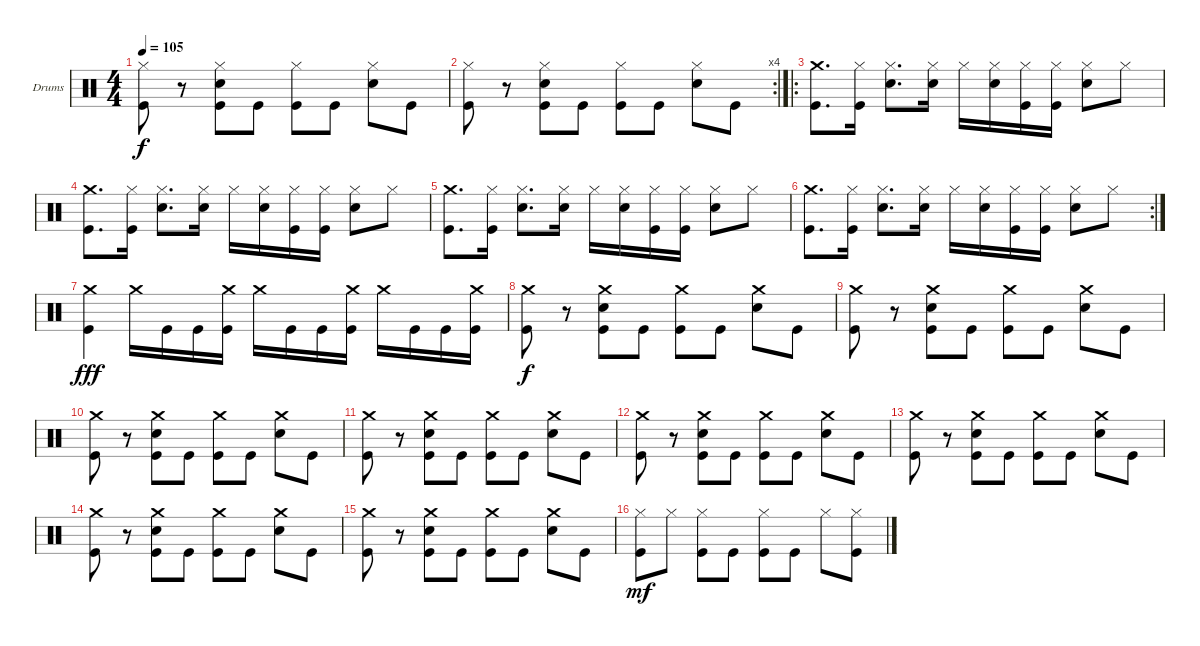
\defaultSystemsLayout 4
\bracketExtendMode groupsimilarinstruments
\firstSystemTrackNameOrientation horizontal
\otherSystemsTrackNameOrientation horizontal
\track ("Ily" "Drums") {instrument percussion}
\staff {score}
\articulation defaults
\ts (4 4)
\tempo 105
\clef neutral
\ks c
("Hi-Hat (closed)" "Kick (hit)").8{dy f} r.8 ("Hi-Hat (closed)" "Kick (hit)" "Snare (hit) 2").8 "Kick (hit)".8 ("Hi-Hat (closed)" "Kick (hit)").8 "Kick (hit)".8 ("Hi-Hat (closed)" "Snare (hit) 2").8 "Kick (hit)".8 |
\rc 4
("Hi-Hat (closed)" "Kick (hit)").8 r.8 ("Hi-Hat (closed)" "Kick (hit)" "Snare (hit) 2").8 "Kick (hit)".8 ("Hi-Hat (closed)" "Kick (hit)").8 "Kick (hit)".8 ("Hi-Hat (closed)" "Snare (hit) 2").8 "Kick (hit)".8 |
\ro
("Kick (hit)" "Crash medium (hit)").8{d} ("Kick (hit)" "Hi-Hat (closed)").16 ("Snare (hit) 2" "Hi-Hat (closed)").8{d} ("Snare (hit) 2" "Hi-Hat (closed)").16 "Hi-Hat (closed)".16 ("Snare (hit) 2" "Hi-Hat (closed)").16 ("Kick (hit)" "Hi-Hat (closed)").16 ("Kick (hit)" "Hi-Hat (closed)").16 ("Snare (hit) 2" "Hi-Hat (closed)").8 "Hi-Hat (closed)".8 |
("Kick (hit)" "Crash medium (hit)").8{d} ("Kick (hit)" "Hi-Hat (closed)").16 ("Snare (hit) 2" "Hi-Hat (closed)").8{d} ("Snare (hit) 2" "Hi-Hat (closed)").16 "Hi-Hat (closed)".16 ("Snare (hit) 2" "Hi-Hat (closed)").16 ("Kick (hit)" "Hi-Hat (closed)").16 ("Kick (hit)" "Hi-Hat (closed)").16 ("Snare (hit) 2" "Hi-Hat (closed)").8 "Hi-Hat (closed)".8 |
("Kick (hit)" "Crash medium (hit)").8{d} ("Kick (hit)" "Hi-Hat (closed)").16 ("Snare (hit) 2" "Hi-Hat (closed)").8{d} ("Snare (hit) 2" "Hi-Hat (closed)").16 "Hi-Hat (closed)".16 ("Snare (hit) 2" "Hi-Hat (closed)").16 ("Kick (hit)" "Hi-Hat (closed)").16 ("Kick (hit)" "Hi-Hat (closed)").16 ("Snare (hit) 2" "Hi-Hat (closed)").8 "Hi-Hat (closed)".8 |
\rc 2
("Kick (hit)" "Crash medium (hit)").8{d} ("Kick (hit)" "Hi-Hat (closed)").16 ("Snare (hit) 2" "Hi-Hat (closed)").8{d} ("Snare (hit) 2" "Hi-Hat (closed)").16 "Hi-Hat (closed)".16 ("Snare (hit) 2" "Hi-Hat (closed)").16 ("Kick (hit)" "Hi-Hat (closed)").16 ("Kick (hit)" "Hi-Hat (closed)").16 ("Snare (hit) 2" "Hi-Hat (closed)").8 "Hi-Hat (closed)".8 |
("Kick (hit)" "Crash medium (hit)").4{dy fff} "Crash medium (hit)".16 "Kick (hit)".16 "Kick (hit)".16 ("Kick (hit)" "Crash medium (hit)").16 "Crash medium (hit)".16 "Kick (hit)".16 "Kick (hit)".16 ("Kick (hit)" "Crash medium (hit)").16 "Crash medium (hit)".16 "Kick (hit)".16 "Kick (hit)".16 ("Kick (hit)" "Crash medium (hit)").16 |
("Kick (hit)" "Crash medium (hit)").8{dy f} r.8 ("Kick (hit)" "Snare (hit) 2" "Crash medium (hit)").8 "Kick (hit)".8 ("Kick (hit)" "Crash medium (hit)").8 "Kick (hit)".8 ("Snare (hit) 2" "Crash medium (hit)").8 "Kick (hit)".8 |
("Kick (hit)" "Crash medium (hit)").8 r.8 ("Kick (hit)" "Snare (hit) 2" "Crash medium (hit)").8 "Kick (hit)".8 ("Kick (hit)" "Crash medium (hit)").8 "Kick (hit)".8 ("Snare (hit) 2" "Crash medium (hit)").8 "Kick (hit)".8 |
("Kick (hit)" "Crash medium (hit)").8 r.8 ("Kick (hit)" "Snare (hit) 2" "Crash medium (hit)").8 "Kick (hit)".8 ("Kick (hit)" "Crash medium (hit)").8 "Kick (hit)".8 ("Snare (hit) 2" "Crash medium (hit)").8 "Kick (hit)".8 |
("Kick (hit)" "Crash medium (hit)").8 r.8 ("Kick (hit)" "Snare (hit) 2" "Crash medium (hit)").8 "Kick (hit)".8 ("Kick (hit)" "Crash medium (hit)").8 "Kick (hit)".8 ("Snare (hit) 2" "Crash medium (hit)").8 "Kick (hit)".8 |
("Kick (hit)" "Crash medium (hit)").8 r.8 ("Kick (hit)" "Snare (hit) 2" "Crash medium (hit)").8 "Kick (hit)".8 ("Kick (hit)" "Crash medium (hit)").8 "Kick (hit)".8 ("Snare (hit) 2" "Crash medium (hit)").8 "Kick (hit)".8 |
("Kick (hit)" "Crash medium (hit)").8 r.8 ("Kick (hit)" "Snare (hit) 2" "Crash medium (hit)").8 "Kick (hit)".8 ("Kick (hit)" "Crash medium (hit)").8 "Kick (hit)".8 ("Snare (hit) 2" "Crash medium (hit)").8 "Kick (hit)".8 |
("Kick (hit)" "Crash medium (hit)").8 r.8 ("Kick (hit)" "Snare (hit) 2" "Crash medium (hit)").8 "Kick (hit)".8 ("Kick (hit)" "Crash medium (hit)").8 "Kick (hit)".8 ("Snare (hit) 2" "Crash medium (hit)").8 "Kick (hit)".8 |
("Kick (hit)" "Crash medium (hit)").8 r.8 ("Kick (hit)" "Snare (hit) 2" "Crash medium (hit)").8 "Kick (hit)".8 ("Kick (hit)" "Crash medium (hit)").8 "Kick (hit)".8 ("Snare (hit) 2" "Crash medium (hit)").8 "Kick (hit)".8 |
("Hi-Hat (closed)" "Kick (hit)").8{dy mf} "Hi-Hat (closed)".8 ("Hi-Hat (closed)" "Kick (hit)").8 "Kick (hit)".8 ("Hi-Hat (closed)" "Kick (hit)").8 "Kick (hit)".8 "Hi-Hat (closed)".8 ("Kick (hit)" "Hi-Hat (closed)").8
